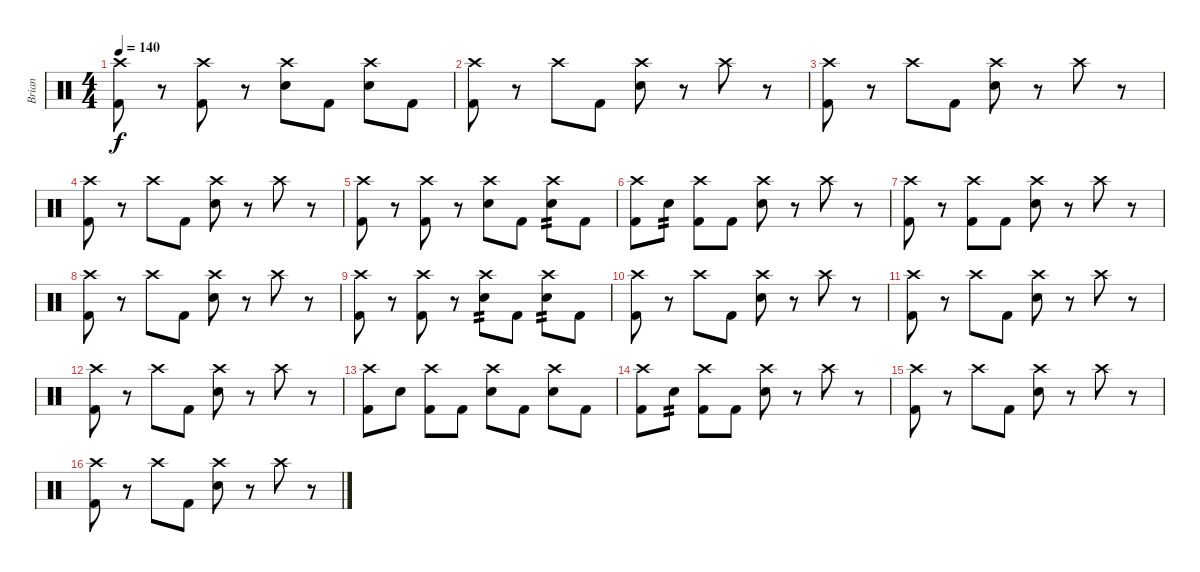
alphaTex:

\track ("Brian" "Brian") {instrument percussion}
\staff {score}
\articulation defaults
\ts (4 4)
\tempo 140
\clef neutral
\ks c
("Crash high (hit)" "Kick (hit) 2").8{dy f} r.8 ("Crash high (hit)" "Kick (hit) 2").8 r.8 ("Crash high (hit)" "Electric Snare (hit)").8 "Kick (hit) 2".8 ("Crash high (hit)" "Electric Snare (hit)").8 "Kick (hit) 2".8 |
("Crash high (hit)" "Kick (hit) 2").8 r.8 "Crash high (hit)".8 "Kick (hit) 2".8 ("Crash high (hit)" "Electric Snare (hit)").8 r.8 "Crash high (hit)".8 r.8 |
("Crash high (hit)" "Kick (hit) 2").8 r.8 "Crash high (hit)".8 "Kick (hit) 2".8 ("Crash high (hit)" "Electric Snare (hit)").8 r.8 "Crash high (hit)".8 r.8 |
("Crash high (hit)" "Kick (hit) 2").8 r.8 "Crash high (hit)".8 "Kick (hit) 2".8 ("Crash high (hit)" "Electric Snare (hit)").8 r.8 "Crash high (hit)".8 r.8 |
("Crash high (hit)" "Kick (hit) 2").8 r.8 ("Crash high (hit)" "Kick (hit) 2").8 r.8 ("Crash high (hit)" "Electric Snare (hit)").8 "Kick (hit) 2".8 ("Crash high (hit)" "Electric Snare (hit)").8{tp 2} "Kick (hit) 2".8 |
("Crash high (hit)" "Kick (hit) 2").8 "Electric Snare (hit)".8{tp 2} ("Crash high (hit)" "Kick (hit) 2").8 "Kick (hit) 2".8 ("Crash high (hit)" "Electric Snare (hit)").8 r.8 "Crash high (hit)".8 r.8 |
("Crash high (hit)" "Kick (hit) 2").8 r.8 ("Crash high (hit)" "Kick (hit) 2").8 "Kick (hit) 2".8 ("Crash high (hit)" "Electric Snare (hit)").8 r.8 "Crash high (hit)".8 r.8 |
("Crash high (hit)" "Kick (hit) 2").8 r.8 "Crash high (hit)".8 "Kick (hit) 2".8 ("Crash high (hit)" "Electric Snare (hit)").8 r.8 "Crash high (hit)".8 r.8 |
("Crash high (hit)" "Kick (hit) 2").8 r.8 ("Crash high (hit)" "Kick (hit) 2").8 r.8 ("Crash high (hit)" "Electric Snare (hit)").8{tp 2} "Kick (hit) 2".8 ("Crash high (hit)" "Electric Snare (hit)").8{tp 2} "Kick (hit) 2".8 |
("Crash high (hit)" "Kick (hit) 2").8 r.8 "Crash high (hit)".8 "Kick (hit) 2".8 ("Crash high (hit)" "Electric Snare (hit)").8 r.8 "Crash high (hit)".8 r.8 |
("Crash high (hit)" "Kick (hit) 2").8 r.8 "Crash high (hit)".8 "Kick (hit) 2".8 ("Crash high (hit)" "Electric Snare (hit)").8 r.8 "Crash high (hit)".8 r.8 |
("Crash high (hit)" "Kick (hit) 2").8 r.8 "Crash high (hit)".8 "Kick (hit) 2".8 ("Crash high (hit)" "Electric Snare (hit)").8 r.8 "Crash high (hit)".8 r.8 |
("Crash high (hit)" "Kick (hit) 2").8 "Electric Snare (hit)".8 ("Crash high (hit)" "Kick (hit) 2").8 "Kick (hit) 2".8 ("Crash high (hit)" "Electric Snare (hit)").8 "Kick (hit) 2".8 ("Crash high (hit)" "Electric Snare (hit)").8 "Kick (hit) 2".8 |
("Crash high (hit)" "Kick (hit) 2").8 "Electric Snare (hit)".8{tp 2} ("Crash high (hit)" "Kick (hit) 2").8 "Kick (hit) 2".8 ("Crash high (hit)" "Electric Snare (hit)").8 r.8 "Crash high (hit)".8 r.8 |
("Crash high (hit)" "Kick (hit) 2").8 r.8 "Crash high (hit)".8 "Kick (hit) 2".8 ("Crash high (hit)" "Electric Snare (hit)").8 r.8 "Crash high (hit)".8 r.8 |
("Crash high (hit)" "Kick (hit) 2").8 r.8 "Crash high (hit)".8 "Kick (hit) 2".8 ("Crash high (hit)" "Electric Snare (hit)").8 r.8 "Crash high (hit)".8 r.8
